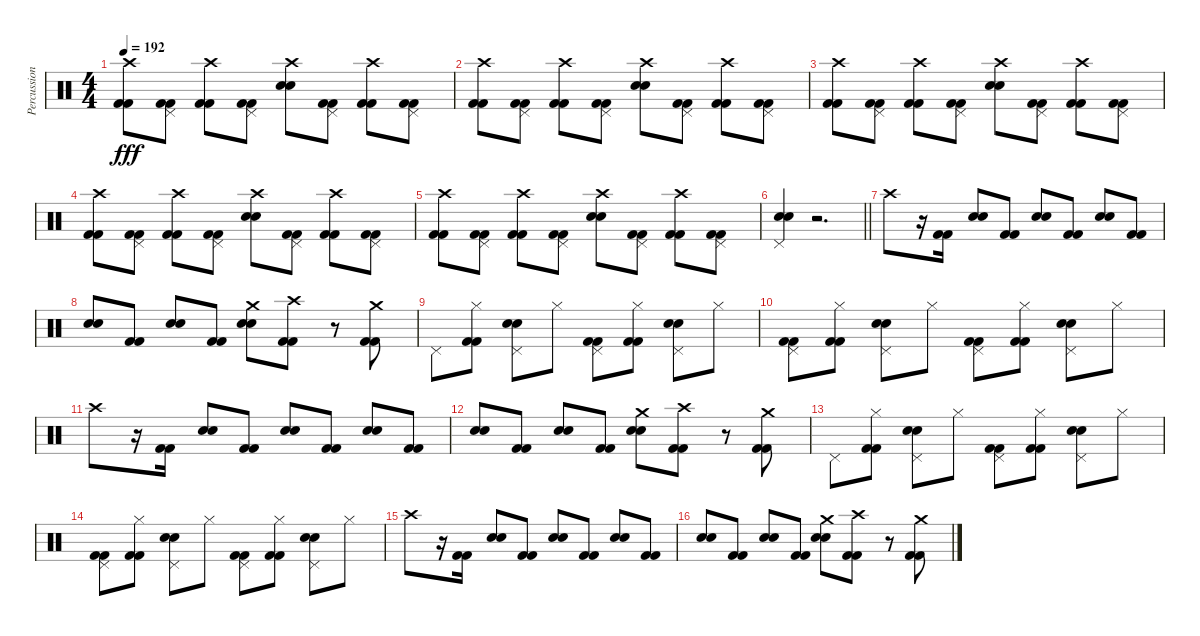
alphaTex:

\track ("Percussion" "Percussion") {instrument percussion}
\staff {score}
\articulation defaults
\ts (4 4)
\tempo 192
\clef neutral
\ks c
("Crash high (hit)" "Kick (hit) 2" "Kick (hit) 2").8{dy fff} ("Pedal Hi-Hat (hit)" "Kick (hit) 2" "Kick (hit) 2").8 ("Crash high (hit)" "Kick (hit) 2" "Kick (hit) 2").8 ("Pedal Hi-Hat (hit)" "Kick (hit) 2" "Kick (hit) 2").8 ("Crash high (hit)" "Snare (hit) 2" "Electric Snare (hit)").8 ("Pedal Hi-Hat (hit)" "Kick (hit) 2" "Kick (hit) 2").8 ("Crash high (hit)" "Kick (hit) 2" "Kick (hit) 2").8 ("Pedal Hi-Hat (hit)" "Kick (hit) 2" "Kick (hit) 2").8 |
("Crash high (hit)" "Kick (hit) 2" "Kick (hit) 2").8 ("Pedal Hi-Hat (hit)" "Kick (hit) 2" "Kick (hit) 2").8 ("Crash high (hit)" "Kick (hit) 2" "Kick (hit) 2").8 ("Pedal Hi-Hat (hit)" "Kick (hit) 2" "Kick (hit) 2").8 ("Crash high (hit)" "Snare (hit) 2" "Electric Snare (hit)").8 ("Pedal Hi-Hat (hit)" "Kick (hit) 2" "Kick (hit) 2").8 ("Crash high (hit)" "Kick (hit) 2" "Kick (hit) 2").8 ("Pedal Hi-Hat (hit)" "Kick (hit) 2" "Kick (hit) 2").8 |
("Crash high (hit)" "Kick (hit) 2" "Kick (hit) 2").8 ("Pedal Hi-Hat (hit)" "Kick (hit) 2" "Kick (hit) 2").8 ("Crash high (hit)" "Kick (hit) 2" "Kick (hit) 2").8 ("Pedal Hi-Hat (hit)" "Kick (hit) 2" "Kick (hit) 2").8 ("Crash high (hit)" "Snare (hit) 2" "Electric Snare (hit)").8 ("Pedal Hi-Hat (hit)" "Kick (hit) 2" "Kick (hit) 2").8 ("Crash high (hit)" "Kick (hit) 2" "Kick (hit) 2").8 ("Pedal Hi-Hat (hit)" "Kick (hit) 2" "Kick (hit) 2").8 |
("Crash high (hit)" "Kick (hit) 2" "Kick (hit) 2").8 ("Pedal Hi-Hat (hit)" "Kick (hit) 2" "Kick (hit) 2").8 ("Crash high (hit)" "Kick (hit) 2" "Kick (hit) 2").8 ("Pedal Hi-Hat (hit)" "Kick (hit) 2" "Kick (hit) 2").8 ("Crash high (hit)" "Snare (hit) 2" "Electric Snare (hit)").8 ("Pedal Hi-Hat (hit)" "Kick (hit) 2" "Kick (hit) 2").8 ("Crash high (hit)" "Kick (hit) 2" "Kick (hit) 2").8 ("Pedal Hi-Hat (hit)" "Kick (hit) 2" "Kick (hit) 2").8 |
("Crash high (hit)" "Kick (hit) 2" "Kick (hit) 2").8 ("Pedal Hi-Hat (hit)" "Kick (hit) 2" "Kick (hit) 2").8 ("Crash high (hit)" "Kick (hit) 2" "Kick (hit) 2").8 ("Pedal Hi-Hat (hit)" "Kick (hit) 2" "Kick (hit) 2").8 ("Crash high (hit)" "Snare (hit) 2" "Electric Snare (hit)").8 ("Pedal Hi-Hat (hit)" "Kick (hit) 2" "Kick (hit) 2").8 ("Crash high (hit)" "Kick (hit) 2" "Kick (hit) 2").8 ("Pedal Hi-Hat (hit)" "Kick (hit) 2" "Kick (hit) 2").8 |
\barLineRight lightlight
("Pedal Hi-Hat (hit)" "Snare (hit) 2" "Electric Snare (hit)").4 r.2{d} |
"Crash high (hit)".8 r.16 ("Kick (hit) 2" "Kick (hit) 2").16 ("Snare (hit) 2" "Electric Snare (hit)").8 ("Kick (hit) 2" "Kick (hit) 2").8 ("Snare (hit) 2" "Electric Snare (hit)").8 ("Kick (hit) 2" "Kick (hit) 2").8 ("Snare (hit) 2" "Electric Snare (hit)").8 ("Kick (hit) 2" "Kick (hit) 2").8 |
("Snare (hit) 2" "Electric Snare (hit)").8 ("Kick (hit) 2" "Kick (hit) 2").8 ("Snare (hit) 2" "Electric Snare (hit)").8 ("Kick (hit) 2" "Kick (hit) 2").8 ("Crash medium (hit)" "Snare (hit) 2" "Electric Snare (hit)").8 ("Crash high (hit)" "Kick (hit) 2" "Kick (hit) 2").8 r.8 ("Crash medium (hit)" "Kick (hit) 2" "Kick (hit) 2").8 |
"Pedal Hi-Hat (hit)".8 ("Hi-Hat (closed)" "Kick (hit) 2" "Kick (hit) 2").8 ("Pedal Hi-Hat (hit)" "Snare (hit) 2" "Electric Snare (hit)").8 "Hi-Hat (closed)".8 ("Pedal Hi-Hat (hit)" "Kick (hit) 2" "Kick (hit) 2").8 ("Hi-Hat (closed)" "Kick (hit) 2" "Kick (hit) 2").8 ("Pedal Hi-Hat (hit)" "Snare (hit) 2" "Electric Snare (hit)").8 "Hi-Hat (closed)".8 |
("Pedal Hi-Hat (hit)" "Kick (hit) 2" "Kick (hit) 2").8 ("Hi-Hat (closed)" "Kick (hit) 2" "Kick (hit) 2").8 ("Pedal Hi-Hat (hit)" "Snare (hit) 2" "Electric Snare (hit)").8 "Hi-Hat (closed)".8 ("Pedal Hi-Hat (hit)" "Kick (hit) 2" "Kick (hit) 2").8 ("Hi-Hat (closed)" "Kick (hit) 2" "Kick (hit) 2").8 ("Pedal Hi-Hat (hit)" "Snare (hit) 2" "Electric Snare (hit)").8 "Hi-Hat (closed)".8 |
"Crash high (hit)".8 r.16 ("Kick (hit) 2" "Kick (hit) 2").16 ("Snare (hit) 2" "Electric Snare (hit)").8 ("Kick (hit) 2" "Kick (hit) 2").8 ("Snare (hit) 2" "Electric Snare (hit)").8 ("Kick (hit) 2" "Kick (hit) 2").8 ("Snare (hit) 2" "Electric Snare (hit)").8 ("Kick (hit) 2" "Kick (hit) 2").8 |
("Snare (hit) 2" "Electric Snare (hit)").8 ("Kick (hit) 2" "Kick (hit) 2").8 ("Snare (hit) 2" "Electric Snare (hit)").8 ("Kick (hit) 2" "Kick (hit) 2").8 ("Crash medium (hit)" "Snare (hit) 2" "Electric Snare (hit)").8 ("Crash high (hit)" "Kick (hit) 2" "Kick (hit) 2").8 r.8 ("Crash medium (hit)" "Kick (hit) 2" "Kick (hit) 2").8 |
"Pedal Hi-Hat (hit)".8 ("Hi-Hat (closed)" "Kick (hit) 2" "Kick (hit) 2").8 ("Pedal Hi-Hat (hit)" "Snare (hit) 2" "Electric Snare (hit)").8 "Hi-Hat (closed)".8 ("Pedal Hi-Hat (hit)" "Kick (hit) 2" "Kick (hit) 2").8 ("Hi-Hat (closed)" "Kick (hit) 2" "Kick (hit) 2").8 ("Pedal Hi-Hat (hit)" "Snare (hit) 2" "Electric Snare (hit)").8 "Hi-Hat (closed)".8 |
("Pedal Hi-Hat (hit)" "Kick (hit) 2" "Kick (hit) 2").8 ("Hi-Hat (closed)" "Kick (hit) 2" "Kick (hit) 2").8 ("Pedal Hi-Hat (hit)" "Snare (hit) 2" "Electric Snare (hit)").8 "Hi-Hat (closed)".8 ("Pedal Hi-Hat (hit)" "Kick (hit) 2" "Kick (hit) 2").8 ("Hi-Hat (closed)" "Kick (hit) 2" "Kick (hit) 2").8 ("Pedal Hi-Hat (hit)" "Snare (hit) 2" "Electric Snare (hit)").8 "Hi-Hat (closed)".8 |
"Crash high (hit)".8 r.16 ("Kick (hit) 2" "Kick (hit) 2").16 ("Snare (hit) 2" "Electric Snare (hit)").8 ("Kick (hit) 2" "Kick (hit) 2").8 ("Snare (hit) 2" "Electric Snare (hit)").8 ("Kick (hit) 2" "Kick (hit) 2").8 ("Snare (hit) 2" "Electric Snare (hit)").8 ("Kick (hit) 2" "Kick (hit) 2").8 |
("Snare (hit) 2" "Electric Snare (hit)").8 ("Kick (hit) 2" "Kick (hit) 2").8 ("Snare (hit) 2" "Electric Snare (hit)").8 ("Kick (hit) 2" "Kick (hit) 2").8 ("Crash medium (hit)" "Snare (hit) 2" "Electric Snare (hit)").8 ("Crash high (hit)" "Kick (hit) 2" "Kick (hit) 2").8 r.8 ("Crash medium (hit)" "Kick (hit) 2" "Kick (hit) 2").8
